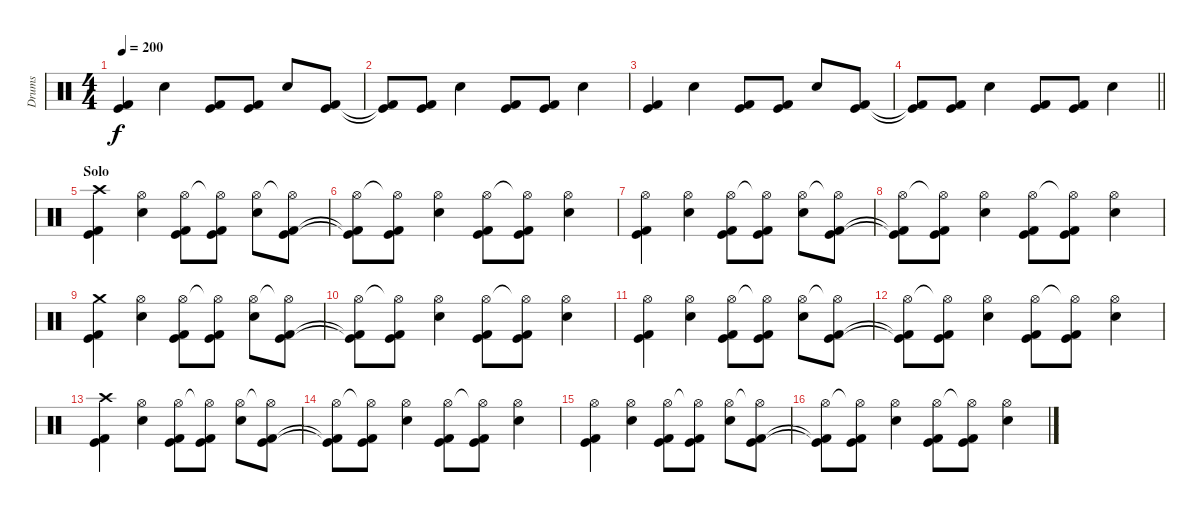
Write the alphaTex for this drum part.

\track ("Drums" "Drums") {instrument percussion}
\staff {score}
\articulation defaults
\ts (4 4)
\tempo 200
\clef neutral
\ks c
("Kick (hit)" "Kick (hit) 2").4{dy f} "Electric Snare (hit)".4 ("Kick (hit)" "Kick (hit) 2").8 ("Kick (hit)" "Kick (hit) 2").8 "Electric Snare (hit)".8 ("Kick (hit)" "Kick (hit) 2").8 |
("Kick (hit)"{t} "Kick (hit) 2"{t}).8 ("Kick (hit)" "Kick (hit) 2").8 "Electric Snare (hit)".4 ("Kick (hit)" "Kick (hit) 2").8 ("Kick (hit)" "Kick (hit) 2").8 "Electric Snare (hit)".4 |
("Kick (hit)" "Kick (hit) 2").4 "Electric Snare (hit)".4 ("Kick (hit)" "Kick (hit) 2").8 ("Kick (hit)" "Kick (hit) 2").8 "Electric Snare (hit)".8 ("Kick (hit)" "Kick (hit) 2").8 |
\barLineRight lightlight
("Kick (hit)"{t} "Kick (hit) 2"{t}).8 ("Kick (hit)" "Kick (hit) 2").8 "Electric Snare (hit)".4 ("Kick (hit)" "Kick (hit) 2").8 ("Kick (hit)" "Kick (hit) 2").8 "Electric Snare (hit)".4 |
\section ("" "Solo")
("Crash high (hit)" "Kick (hit)" "Kick (hit) 2").4 ("Hi-Hat (open)" "Electric Snare (hit)").4 ("Hi-Hat (open)" "Kick (hit)" "Kick (hit) 2").8 ("Hi-Hat (open)"{t} "Kick (hit)" "Kick (hit) 2").8 ("Hi-Hat (open)" "Electric Snare (hit)").8 ("Hi-Hat (open)"{t} "Kick (hit)" "Kick (hit) 2").8 |
("Hi-Hat (open)" "Kick (hit)"{t} "Kick (hit) 2"{t}).8 ("Hi-Hat (open)"{t} "Kick (hit)" "Kick (hit) 2").8 ("Hi-Hat (open)" "Electric Snare (hit)").4 ("Hi-Hat (open)" "Kick (hit)" "Kick (hit) 2").8 ("Hi-Hat (open)"{t} "Kick (hit)" "Kick (hit) 2").8 ("Hi-Hat (open)" "Electric Snare (hit)").4 |
("Hi-Hat (open)" "Kick (hit)" "Kick (hit) 2").4 ("Hi-Hat (open)" "Electric Snare (hit)").4 ("Hi-Hat (open)" "Kick (hit)" "Kick (hit) 2").8 ("Hi-Hat (open)"{t} "Kick (hit)" "Kick (hit) 2").8 ("Hi-Hat (open)" "Electric Snare (hit)").8 ("Hi-Hat (open)"{t} "Kick (hit)" "Kick (hit) 2").8 |
("Hi-Hat (open)" "Kick (hit)"{t} "Kick (hit) 2"{t}).8 ("Hi-Hat (open)"{t} "Kick (hit)" "Kick (hit) 2").8 ("Hi-Hat (open)" "Electric Snare (hit)").4 ("Hi-Hat (open)" "Kick (hit)" "Kick (hit) 2").8 ("Hi-Hat (open)"{t} "Kick (hit)" "Kick (hit) 2").8 ("Hi-Hat (open)" "Electric Snare (hit)").4 |
("Crash medium (hit)" "Kick (hit)" "Kick (hit) 2").4 ("Hi-Hat (open)" "Electric Snare (hit)").4 ("Hi-Hat (open)" "Kick (hit)" "Kick (hit) 2").8 ("Hi-Hat (open)"{t} "Kick (hit)" "Kick (hit) 2").8 ("Hi-Hat (open)" "Electric Snare (hit)").8 ("Hi-Hat (open)"{t} "Kick (hit)" "Kick (hit) 2").8 |
("Hi-Hat (open)" "Kick (hit)"{t} "Kick (hit) 2"{t}).8 ("Hi-Hat (open)"{t} "Kick (hit)" "Kick (hit) 2").8 ("Hi-Hat (open)" "Electric Snare (hit)").4 ("Hi-Hat (open)" "Kick (hit)" "Kick (hit) 2").8 ("Hi-Hat (open)"{t} "Kick (hit)" "Kick (hit) 2").8 ("Hi-Hat (open)" "Electric Snare (hit)").4 |
("Hi-Hat (open)" "Kick (hit)" "Kick (hit) 2").4 ("Hi-Hat (open)" "Electric Snare (hit)").4 ("Hi-Hat (open)" "Kick (hit)" "Kick (hit) 2").8 ("Hi-Hat (open)"{t} "Kick (hit)" "Kick (hit) 2").8 ("Hi-Hat (open)" "Electric Snare (hit)").8 ("Hi-Hat (open)"{t} "Kick (hit)" "Kick (hit) 2").8 |
("Hi-Hat (open)" "Kick (hit)"{t} "Kick (hit) 2"{t}).8 ("Hi-Hat (open)"{t} "Kick (hit)" "Kick (hit) 2").8 ("Hi-Hat (open)" "Electric Snare (hit)").4 ("Hi-Hat (open)" "Kick (hit)" "Kick (hit) 2").8 ("Hi-Hat (open)"{t} "Kick (hit)" "Kick (hit) 2").8 ("Hi-Hat (open)" "Electric Snare (hit)").4 |
("Crash high (hit)" "Kick (hit)" "Kick (hit) 2").4 ("Hi-Hat (open)" "Electric Snare (hit)").4 ("Hi-Hat (open)" "Kick (hit)" "Kick (hit) 2").8 ("Hi-Hat (open)"{t} "Kick (hit)" "Kick (hit) 2").8 ("Hi-Hat (open)" "Electric Snare (hit)").8 ("Hi-Hat (open)"{t} "Kick (hit)" "Kick (hit) 2").8 |
("Hi-Hat (open)" "Kick (hit)"{t} "Kick (hit) 2"{t}).8 ("Hi-Hat (open)"{t} "Kick (hit)" "Kick (hit) 2").8 ("Hi-Hat (open)" "Electric Snare (hit)").4 ("Hi-Hat (open)" "Kick (hit)" "Kick (hit) 2").8 ("Hi-Hat (open)"{t} "Kick (hit)" "Kick (hit) 2").8 ("Hi-Hat (open)" "Electric Snare (hit)").4 |
("Hi-Hat (open)" "Kick (hit)" "Kick (hit) 2").4 ("Hi-Hat (open)" "Electric Snare (hit)").4 ("Hi-Hat (open)" "Kick (hit)" "Kick (hit) 2").8 ("Hi-Hat (open)"{t} "Kick (hit)" "Kick (hit) 2").8 ("Hi-Hat (open)" "Electric Snare (hit)").8 ("Hi-Hat (open)"{t} "Kick (hit)" "Kick (hit) 2").8 |
("Hi-Hat (open)" "Kick (hit)"{t} "Kick (hit) 2"{t}).8 ("Hi-Hat (open)"{t} "Kick (hit)" "Kick (hit) 2").8 ("Hi-Hat (open)" "Electric Snare (hit)").4 ("Hi-Hat (open)" "Kick (hit)" "Kick (hit) 2").8 ("Hi-Hat (open)"{t} "Kick (hit)" "Kick (hit) 2").8 ("Hi-Hat (open)" "Electric Snare (hit)").4
